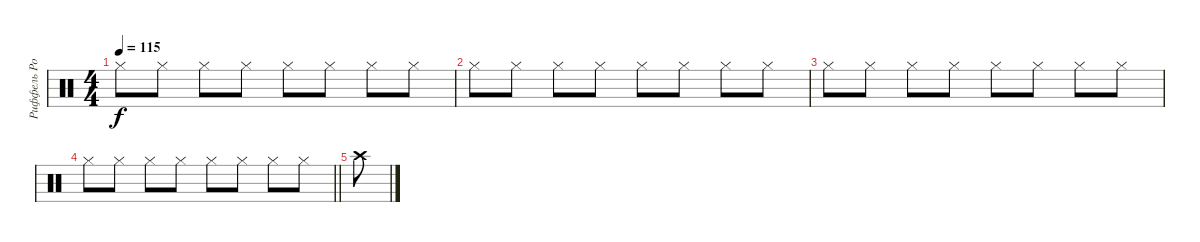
\track ("Риффель Роман (хэты)" "Риффель Ро") {instrument percussion}
\staff {score}
\articulation defaults
\ts (4 4)
\tempo 115
\clef neutral
\ks c "Hi-Hat (closed)".8{dy f} "Hi-Hat (closed)".8 "Hi-Hat (closed)".8 "Hi-Hat (closed)".8 "Hi-Hat (closed)".8 "Hi-Hat (closed)".8 "Hi-Hat (closed)".8 "Hi-Hat (closed)".8
|
"Hi-Hat (closed)".8 "Hi-Hat (closed)".8 "Hi-Hat (closed)".8 "Hi-Hat (closed)".8 "Hi-Hat (closed)".8 "Hi-Hat (closed)".8 "Hi-Hat (closed)".8 "Hi-Hat (closed)".8 |
"Hi-Hat (closed)".8 "Hi-Hat (closed)".8 "Hi-Hat (closed)".8 "Hi-Hat (closed)".8 "Hi-Hat (closed)".8 "Hi-Hat (closed)".8 "Hi-Hat (closed)".8 "Hi-Hat (closed)".8 |
\barLineRight lightlight "Hi-Hat (closed)".8 "Hi-Hat (closed)".8 "Hi-Hat (closed)".8 "Hi-Hat (closed)".8 "Hi-Hat (closed)".8 "Hi-Hat (closed)".8 "Hi-Hat (closed)".8 "Hi-Hat (closed)".8
|
"Crash high (hit)".8
